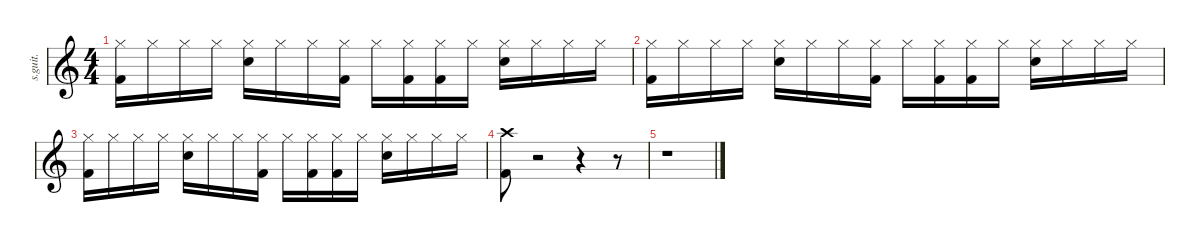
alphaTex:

\defaultSystemsLayout 4
\hideDynamics
\bracketExtendMode nobrackets
\track ("Drums" "s.guit.") {instrument percussion}
\staff {score}
\articulation defaults
\ts (4 4)
\tempo (100 hide)
\clef g2
\ks c
("Hi-Hat (closed)" "Kick (hit) 2").16{dy f} "Hi-Hat (closed)".16 "Hi-Hat (closed)".16 "Hi-Hat (closed)".16 ("Hi-Hat (closed)" "Electric Snare (hit)").16 "Hi-Hat (closed)".16 "Hi-Hat (closed)".16 ("Hi-Hat (closed)" "Kick (hit) 2").16 "Hi-Hat (closed)".16 ("Hi-Hat (closed)" "Kick (hit) 2").16 ("Hi-Hat (closed)" "Kick (hit) 2").16 "Hi-Hat (closed)".16 ("Hi-Hat (closed)" "Electric Snare (hit)").16 "Hi-Hat (closed)".16 "Hi-Hat (closed)".16 "Hi-Hat (closed)".16 |
("Hi-Hat (closed)" "Kick (hit) 2").16 "Hi-Hat (closed)".16 "Hi-Hat (closed)".16 "Hi-Hat (closed)".16 ("Hi-Hat (closed)" "Electric Snare (hit)").16 "Hi-Hat (closed)".16 "Hi-Hat (closed)".16 ("Hi-Hat (closed)" "Kick (hit) 2").16 "Hi-Hat (closed)".16 ("Hi-Hat (closed)" "Kick (hit) 2").16 ("Hi-Hat (closed)" "Kick (hit) 2").16 "Hi-Hat (closed)".16 ("Hi-Hat (closed)" "Electric Snare (hit)").16 "Hi-Hat (closed)".16 "Hi-Hat (closed)".16 "Hi-Hat (closed)".16 |
("Hi-Hat (closed)" "Kick (hit) 2").16 "Hi-Hat (closed)".16 "Hi-Hat (closed)".16 "Hi-Hat (closed)".16 ("Hi-Hat (closed)" "Electric Snare (hit)").16 "Hi-Hat (closed)".16 "Hi-Hat (closed)".16 ("Hi-Hat (closed)" "Kick (hit) 2").16 "Hi-Hat (closed)".16 ("Hi-Hat (closed)" "Kick (hit) 2").16 ("Hi-Hat (closed)" "Kick (hit) 2").16 "Hi-Hat (closed)".16 ("Hi-Hat (closed)" "Electric Snare (hit)").16 "Hi-Hat (closed)".16 "Hi-Hat (closed)".16 "Hi-Hat (closed)".16 |
("Crash high (hit)" "Kick (hit) 2").8 r.2 r.4 r.8 |
r.1
